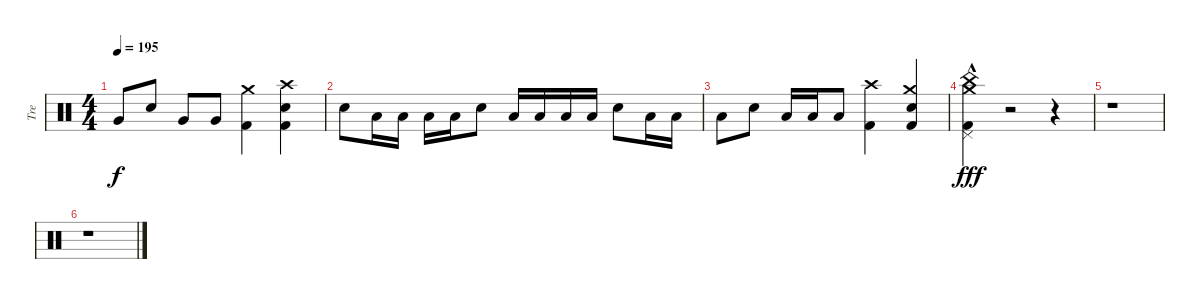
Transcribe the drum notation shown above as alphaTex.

\track ("Tre" "Tre") {instrument percussion}
\staff {score}
\articulation defaults
\ts (4 4)
\tempo 195
\clef neutral
\ks c "Very Low Tom (hit)".8{dy f} "Snare (hit) 2".8 "Very Low Tom (hit)".8 "Very Low Tom (hit)".8
("Crash medium (hit)" "Kick (hit) 2").4 ("Crash high (hit)" "Snare (hit) 2" "Kick (hit) 2").4 |
"Snare (hit) 2".8 "Low Tom (hit)".16 "Low Tom (hit)".16 "Low Tom (hit)".16 "Low Tom (hit)".16 "Snare (hit) 2".8 "Low Tom (hit)".16 "Low Tom (hit)".16 "Low Tom (hit)".16 "Low Tom (hit)".16 "Snare (hit) 2".8 "Low Tom (hit)".16 "Low Tom (hit)".16 |
"Low Tom (hit)".8 "Snare (hit) 2".8 "Low Tom (hit)".16 "Low Tom (hit)".16 "Low Tom (hit)".8 ("Crash high (hit)" "Kick (hit) 2").4 ("Crash medium (hit)" "Snare (hit) 2" "Kick (hit) 2").4 |
("China (hit)" "Crash medium (hit)" "Pedal Hi-Hat (hit)"{hac} "Kick (hit) 2"{hac}).4{dy fff} r.2 r.4 |
r.1 |
r.1
